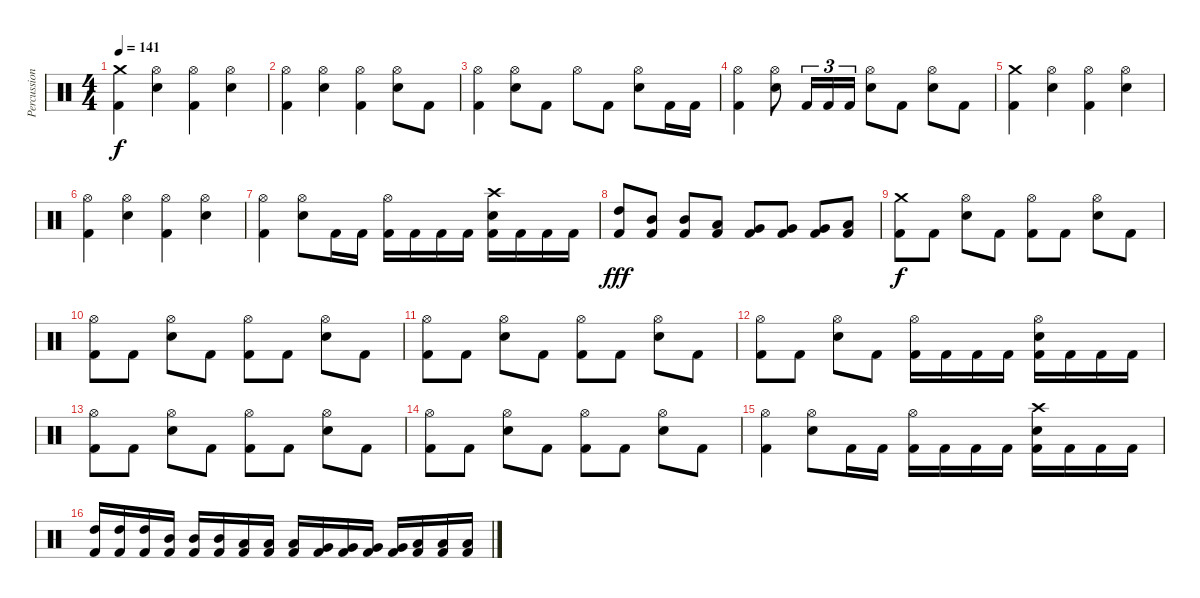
\track ("Percussion" "Percussion") {instrument percussion}
\staff {score}
\articulation defaults
\ts (4 4)
\tempo 141
\clef neutral
\ks c
("Kick (hit) 2" "Crash medium (hit)").4{dy f} ("Electric Snare (hit)" "Hi-Hat (open)").4 ("Kick (hit) 2" "Hi-Hat (open)").4 ("Electric Snare (hit)" "Hi-Hat (open)").4 |
("Kick (hit) 2" "Hi-Hat (open)").4 ("Electric Snare (hit)" "Hi-Hat (open)").4 ("Kick (hit) 2" "Hi-Hat (open)").4 ("Electric Snare (hit)" "Hi-Hat (open)").8 "Kick (hit) 2".8 |
("Kick (hit) 2" "Hi-Hat (open)").4 ("Electric Snare (hit)" "Hi-Hat (open)").8 "Kick (hit) 2".8 "Hi-Hat (open)".8 "Kick (hit) 2".8 ("Electric Snare (hit)" "Hi-Hat (open)").8 "Kick (hit) 2".16 "Kick (hit) 2".16 |
("Kick (hit) 2" "Hi-Hat (open)").4 ("Electric Snare (hit)" "Hi-Hat (open)").8 "Kick (hit) 2".16{tu (3 2)} "Kick (hit) 2".16{tu (3 2)} "Kick (hit) 2".16{tu (3 2)} ("Electric Snare (hit)" "Hi-Hat (open)").8 "Kick (hit) 2".8 ("Electric Snare (hit)" "Hi-Hat (open)").8 "Kick (hit) 2".8 |
("Kick (hit) 2" "Crash medium (hit)").4 ("Electric Snare (hit)" "Hi-Hat (open)").4 ("Kick (hit) 2" "Hi-Hat (open)").4 ("Electric Snare (hit)" "Hi-Hat (open)").4 |
("Kick (hit) 2" "Hi-Hat (open)").4 ("Electric Snare (hit)" "Hi-Hat (open)").4 ("Kick (hit) 2" "Hi-Hat (open)").4 ("Electric Snare (hit)" "Hi-Hat (open)").4 |
("Kick (hit) 2" "Hi-Hat (open)").4 ("Electric Snare (hit)" "Hi-Hat (open)").8 "Kick (hit) 2".16 "Kick (hit) 2".16 ("Kick (hit) 2" "Hi-Hat (open)").16 "Kick (hit) 2".16 "Kick (hit) 2".16 "Kick (hit) 2".16 ("Kick (hit) 2" "Electric Snare (hit)" "Crash high (hit)").16 "Kick (hit) 2".16 "Kick (hit) 2".16 "Kick (hit) 2".16 |
("Kick (hit) 2" "High Tom (hit)").8{dy fff} ("Kick (hit) 2" "Mid Tom (hit)").8 ("Kick (hit) 2" "Mid Tom (hit)").8 ("Kick (hit) 2" "Low Tom (hit)").8 ("Kick (hit) 2" "Very Low Tom (hit)").8 ("Kick (hit) 2" "Very Low Tom (hit)").8 ("Kick (hit) 2" "Very Low Tom (hit)").8 ("Kick (hit) 2" "Low Floor Tom (hit)").8 |
("Kick (hit) 2" "Crash medium (hit)").8{dy f} "Kick (hit) 2".8 ("Electric Snare (hit)" "Hi-Hat (open)").8 "Kick (hit) 2".8 ("Kick (hit) 2" "Hi-Hat (open)").8 "Kick (hit) 2".8 ("Electric Snare (hit)" "Hi-Hat (open)").8 "Kick (hit) 2".8 |
("Kick (hit) 2" "Hi-Hat (open)").8 "Kick (hit) 2".8 ("Electric Snare (hit)" "Hi-Hat (open)").8 "Kick (hit) 2".8 ("Kick (hit) 2" "Hi-Hat (open)").8 "Kick (hit) 2".8 ("Electric Snare (hit)" "Hi-Hat (open)").8 "Kick (hit) 2".8 |
("Kick (hit) 2" "Hi-Hat (open)").8 "Kick (hit) 2".8 ("Electric Snare (hit)" "Hi-Hat (open)").8 "Kick (hit) 2".8 ("Kick (hit) 2" "Hi-Hat (open)").8 "Kick (hit) 2".8 ("Electric Snare (hit)" "Hi-Hat (open)").8 "Kick (hit) 2".8 |
("Kick (hit) 2" "Hi-Hat (open)").8 "Kick (hit) 2".8 ("Electric Snare (hit)" "Hi-Hat (open)").8 "Kick (hit) 2".8 ("Kick (hit) 2" "Hi-Hat (open)").16 "Kick (hit) 2".16 "Kick (hit) 2".16 "Kick (hit) 2".16 ("Kick (hit) 2" "Electric Snare (hit)" "Hi-Hat (open)").16 "Kick (hit) 2".16 "Kick (hit) 2".16 "Kick (hit) 2".16 |
("Kick (hit) 2" "Hi-Hat (open)").8 "Kick (hit) 2".8 ("Electric Snare (hit)" "Hi-Hat (open)").8 "Kick (hit) 2".8 ("Kick (hit) 2" "Hi-Hat (open)").8 "Kick (hit) 2".8 ("Electric Snare (hit)" "Hi-Hat (open)").8 "Kick (hit) 2".8 |
("Kick (hit) 2" "Hi-Hat (open)").8 "Kick (hit) 2".8 ("Electric Snare (hit)" "Hi-Hat (open)").8 "Kick (hit) 2".8 ("Kick (hit) 2" "Hi-Hat (open)").8 "Kick (hit) 2".8 ("Electric Snare (hit)" "Hi-Hat (open)").8 "Kick (hit) 2".8 |
("Kick (hit) 2" "Hi-Hat (open)").4 ("Electric Snare (hit)" "Hi-Hat (open)").8 "Kick (hit) 2".16 "Kick (hit) 2".16 ("Kick (hit) 2" "Hi-Hat (open)").16 "Kick (hit) 2".16 "Kick (hit) 2".16 "Kick (hit) 2".16 ("Kick (hit) 2" "Electric Snare (hit)" "Crash high (hit)").16 "Kick (hit) 2".16 "Kick (hit) 2".16 "Kick (hit) 2".16 |
("Kick (hit) 2" "High Tom (hit)").16 ("Kick (hit) 2" "High Tom (hit)").16 ("Kick (hit) 2" "High Tom (hit)").16 ("Kick (hit) 2" "Mid Tom (hit)").16 ("Kick (hit) 2" "Mid Tom (hit)").16 ("Kick (hit) 2" "Mid Tom (hit)").16 ("Kick (hit) 2" "Low Tom (hit)").16 ("Kick (hit) 2" "Low Tom (hit)").16 ("Kick (hit) 2" "Low Tom (hit)").16 ("Kick (hit) 2" "Very Low Tom (hit)").16 ("Kick (hit) 2" "Very Low Tom (hit)").16 ("Kick (hit) 2" "Very Low Tom (hit)").16 ("Kick (hit) 2" "Very Low Tom (hit)").16 ("Kick (hit) 2" "Low Floor Tom (hit)").16 ("Kick (hit) 2" "Low Floor Tom (hit)").16 ("Kick (hit) 2" "Low Floor Tom (hit)").16
